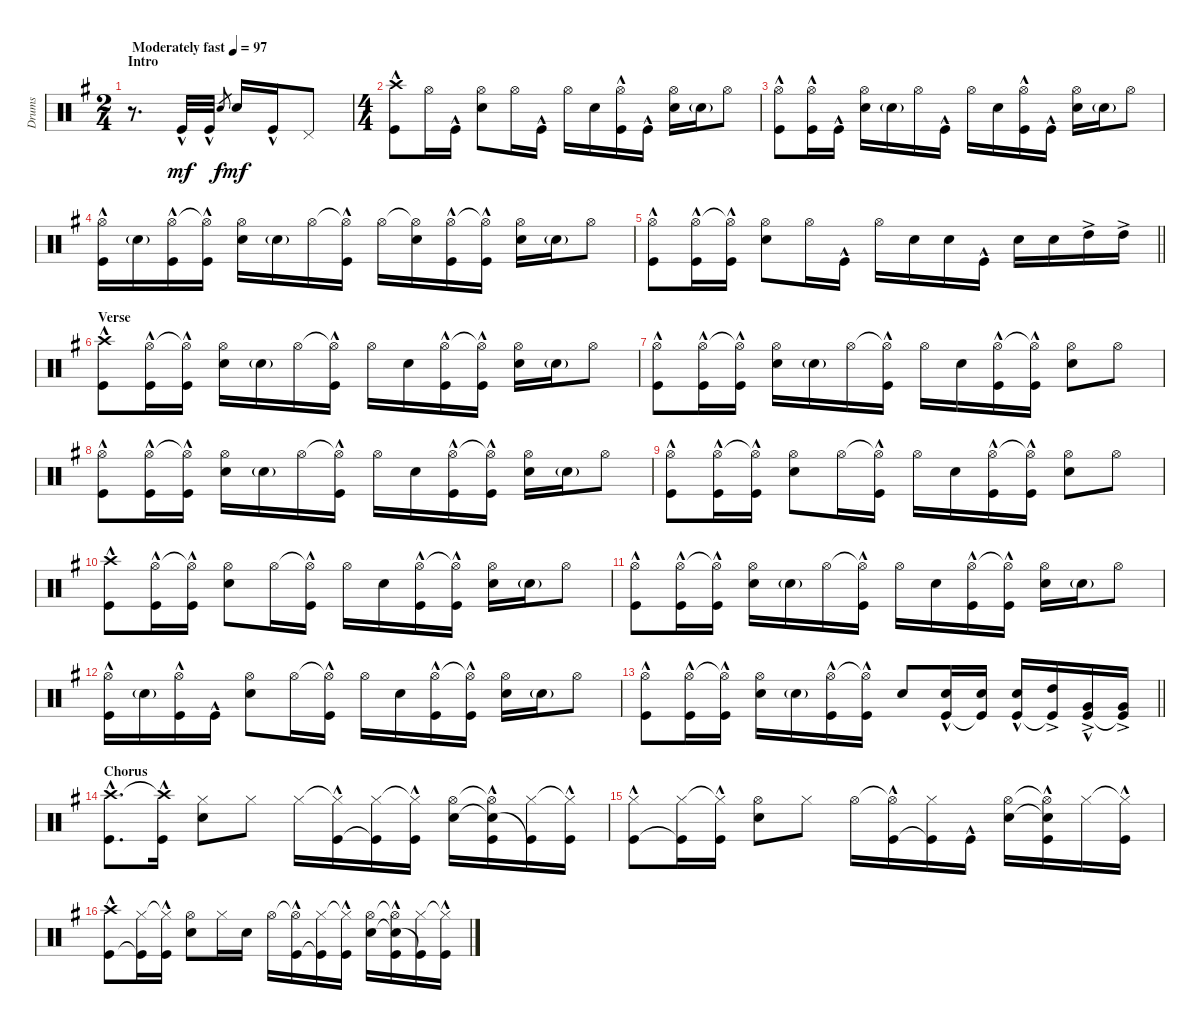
\track ("Drums" "Drums") {instrument percussion}
\staff {score}
\articulation defaults
\ts (2 4)
\section ("" "Intro")
\tempo (97 "Moderately fast")
\clef neutral
\ks eminor
r.8{d dy mf} "Kick (hit)"{hac}.32 "Kick (hit)"{hac}.32 "Snare (hit) 2".8{gr dy f} "Snare (hit) 2".16{dy mf} "Kick (hit)"{hac}.16 "Pedal Hi-Hat (hit)".8 |
\ts (4 4)
("Crash high (hit)" "Kick (hit)"{hac}).8 "Hi-Hat (open)".16 "Kick (hit)"{hac}.16 ("Hi-Hat (open)" "Snare (hit) 2").8 "Hi-Hat (open)".16 "Kick (hit)"{hac}.16 "Hi-Hat (open)".16 "Snare (hit) 2".16 ("Hi-Hat (open)" "Kick (hit)"{hac}).16 "Kick (hit)"{hac}.16 ("Hi-Hat (open)" "Snare (hit) 2").16 "Snare (hit) 2"{g}.16 "Hi-Hat (open)".8 |
("Hi-Hat (open)" "Kick (hit)"{hac}).8 ("Hi-Hat (open)" "Kick (hit)"{hac}).16 "Kick (hit)"{hac}.16 ("Hi-Hat (open)" "Snare (hit) 2").16 "Snare (hit) 2"{g}.16 "Hi-Hat (open)".16 "Kick (hit)"{hac}.16 "Hi-Hat (open)".16 "Snare (hit) 2".16 ("Hi-Hat (open)" "Kick (hit)"{hac}).16 "Kick (hit)"{hac}.16 ("Hi-Hat (open)" "Snare (hit) 2").16 "Snare (hit) 2"{g}.16 "Hi-Hat (open)".8 |
("Hi-Hat (open)" "Kick (hit)"{hac}).16 "Snare (hit) 2"{g}.16 ("Hi-Hat (open)" "Kick (hit)"{hac}).16 ("Hi-Hat (open)"{t} "Kick (hit)"{hac}).16 ("Hi-Hat (open)" "Snare (hit) 2").16 "Snare (hit) 2"{g}.16 "Hi-Hat (open)".16 ("Hi-Hat (open)"{t} "Kick (hit)"{hac}).16 "Hi-Hat (open)".16 ("Hi-Hat (open)"{t} "Snare (hit) 2").16 ("Hi-Hat (open)" "Kick (hit)"{hac}).16 ("Hi-Hat (open)"{t} "Kick (hit)"{hac}).16 ("Hi-Hat (open)" "Snare (hit) 2").16 "Snare (hit) 2"{g}.16 "Hi-Hat (open)".8 |
\barLineRight lightlight
("Hi-Hat (open)" "Kick (hit)"{hac}).8 ("Hi-Hat (open)" "Kick (hit)"{hac}).16 ("Hi-Hat (open)"{t} "Kick (hit)"{hac}).16 ("Hi-Hat (open)" "Snare (hit) 2").8 "Hi-Hat (open)".16 "Kick (hit)"{hac}.16 "Hi-Hat (open)".16 "Snare (hit) 2".16 "Snare (hit) 2".16 "Kick (hit)"{hac}.16 "Snare (hit) 2".16 "Snare (hit) 2".16 "High Tom (hit)"{ac}.16 "High Tom (hit)"{ac}.16 |
\section ("" "Verse")
("Crash high (hit)" "Kick (hit)"{hac}).8 ("Hi-Hat (open)" "Kick (hit)"{hac}).16 ("Hi-Hat (open)"{t} "Kick (hit)"{hac}).16 ("Hi-Hat (open)" "Snare (hit) 2").16 "Snare (hit) 2"{g}.16 "Hi-Hat (open)".16 ("Hi-Hat (open)"{t} "Kick (hit)"{hac}).16 "Hi-Hat (open)".16 "Snare (hit) 2".16 ("Hi-Hat (open)" "Kick (hit)"{hac}).16 ("Hi-Hat (open)"{t} "Kick (hit)"{hac}).16 ("Hi-Hat (open)" "Snare (hit) 2").16 "Snare (hit) 2"{g}.16 "Hi-Hat (open)".8 |
("Hi-Hat (open)" "Kick (hit)"{hac}).8 ("Hi-Hat (open)" "Kick (hit)"{hac}).16 ("Hi-Hat (open)"{t} "Kick (hit)"{hac}).16 ("Hi-Hat (open)" "Snare (hit) 2").16 "Snare (hit) 2"{g}.16 "Hi-Hat (open)".16 ("Hi-Hat (open)"{t} "Kick (hit)"{hac}).16 "Hi-Hat (open)".16 "Snare (hit) 2".16 ("Hi-Hat (open)" "Kick (hit)"{hac}).16 ("Hi-Hat (open)"{t} "Kick (hit)"{hac}).16 ("Hi-Hat (open)" "Snare (hit) 2").8 "Hi-Hat (open)".8 |
("Hi-Hat (open)" "Kick (hit)"{hac}).8 ("Hi-Hat (open)" "Kick (hit)"{hac}).16 ("Hi-Hat (open)"{t} "Kick (hit)"{hac}).16 ("Hi-Hat (open)" "Snare (hit) 2").16 "Snare (hit) 2"{g}.16 "Hi-Hat (open)".16 ("Hi-Hat (open)"{t} "Kick (hit)"{hac}).16 "Hi-Hat (open)".16 "Snare (hit) 2".16 ("Hi-Hat (open)" "Kick (hit)"{hac}).16 ("Hi-Hat (open)"{t} "Kick (hit)"{hac}).16 ("Hi-Hat (open)" "Snare (hit) 2").16 "Snare (hit) 2"{g}.16 "Hi-Hat (open)".8 |
("Hi-Hat (open)" "Kick (hit)"{hac}).8 ("Hi-Hat (open)" "Kick (hit)"{hac}).16 ("Hi-Hat (open)"{t} "Kick (hit)"{hac}).16 ("Hi-Hat (open)" "Snare (hit) 2").8 "Hi-Hat (open)".16 ("Hi-Hat (open)"{t} "Kick (hit)"{hac}).16 "Hi-Hat (open)".16 "Snare (hit) 2".16 ("Hi-Hat (open)" "Kick (hit)"{hac}).16 ("Hi-Hat (open)"{t} "Kick (hit)"{hac}).16 ("Hi-Hat (open)" "Snare (hit) 2").8 "Hi-Hat (open)".8 |
("Crash high (hit)" "Kick (hit)"{hac}).8 ("Hi-Hat (open)" "Kick (hit)"{hac}).16 ("Hi-Hat (open)"{t} "Kick (hit)"{hac}).16 ("Hi-Hat (open)" "Snare (hit) 2").8 "Hi-Hat (open)".16 ("Hi-Hat (open)"{t} "Kick (hit)"{hac}).16 "Hi-Hat (open)".16 "Snare (hit) 2".16 ("Hi-Hat (open)" "Kick (hit)"{hac}).16 ("Hi-Hat (open)"{t} "Kick (hit)"{hac}).16 ("Hi-Hat (open)" "Snare (hit) 2").16 "Snare (hit) 2"{g}.16 "Hi-Hat (open)".8 |
("Hi-Hat (open)" "Kick (hit)"{hac}).8 ("Hi-Hat (open)" "Kick (hit)"{hac}).16 ("Hi-Hat (open)"{t} "Kick (hit)"{hac}).16 ("Hi-Hat (open)" "Snare (hit) 2").16 "Snare (hit) 2"{g}.16 "Hi-Hat (open)".16 ("Hi-Hat (open)"{t} "Kick (hit)"{hac}).16 "Hi-Hat (open)".16 "Snare (hit) 2".16 ("Hi-Hat (open)" "Kick (hit)"{hac}).16 ("Hi-Hat (open)"{t} "Kick (hit)"{hac}).16 ("Hi-Hat (open)" "Snare (hit) 2").16 "Snare (hit) 2"{g}.16 "Hi-Hat (open)".8 |
("Hi-Hat (open)" "Kick (hit)"{hac}).16 "Snare (hit) 2"{g}.16 ("Hi-Hat (open)" "Kick (hit)"{hac}).16 "Kick (hit)"{hac}.16 ("Hi-Hat (open)" "Snare (hit) 2").8 "Hi-Hat (open)".16 ("Hi-Hat (open)"{t} "Kick (hit)"{hac}).16 "Hi-Hat (open)".16 "Snare (hit) 2".16 ("Hi-Hat (open)" "Kick (hit)"{hac}).16 ("Hi-Hat (open)"{t} "Kick (hit)"{hac}).16 ("Hi-Hat (open)" "Snare (hit) 2").16 "Snare (hit) 2"{g}.16 "Hi-Hat (open)".8 |
\barLineRight lightlight
("Hi-Hat (open)" "Kick (hit)"{hac}).8 ("Hi-Hat (open)" "Kick (hit)"{hac}).16 ("Hi-Hat (open)"{t} "Kick (hit)"{hac}).16 ("Hi-Hat (open)" "Snare (hit) 2").16 "Snare (hit) 2"{g}.16 ("Hi-Hat (open)" "Kick (hit)"{hac}).16 ("Hi-Hat (open)"{t} "Kick (hit)"{hac}).16 "Snare (hit) 2".8 ("Snare (hit) 2" "Kick (hit)"{hac}).16 ("Snare (hit) 2" "Kick (hit)"{t}).16 ("Snare (hit) 2" "Kick (hit)"{hac}).16 ("High Tom (hit)"{ac} "Kick (hit)"{t}).16 ("Very Low Tom (hit)"{ac} "Kick (hit)"{hac}).16 ("Very Low Tom (hit)"{ac} "Kick (hit)"{t}).16 |
\section ("" "Chorus")
("Crash high (hit)" "Kick (hit)"{hac}).8{d} ("Crash high (hit)"{t} "Kick (hit)"{hac}).16 ("Hi-Hat (closed)" "Snare (hit) 2").8 "Hi-Hat (closed)".8 "Hi-Hat (closed)".16 ("Hi-Hat (closed)"{t} "Kick (hit)"{hac}).16 ("Hi-Hat (closed)" "Kick (hit)"{t}).16 ("Hi-Hat (closed)"{t} "Kick (hit)"{hac}).16 ("Hi-Hat (open)" "Snare (hit) 2").16 ("Hi-Hat (open)"{t} "Snare (hit) 2"{t} "Kick (hit)"{hac}).16 ("Hi-Hat (closed)" "Kick (hit)"{t}).16 ("Hi-Hat (closed)"{t} "Kick (hit)"{hac}).16 |
("Hi-Hat (closed)" "Kick (hit)"{hac}).8 ("Hi-Hat (closed)" "Kick (hit)"{t}).16 ("Hi-Hat (closed)"{t} "Kick (hit)"{hac}).16 ("Hi-Hat (open)" "Snare (hit) 2").8 "Hi-Hat (closed)".8 "Hi-Hat (open)".16 ("Hi-Hat (open)"{t} "Kick (hit)"{hac}).16 ("Hi-Hat (closed)" "Kick (hit)"{t}).16 "Kick (hit)"{hac}.16 ("Hi-Hat (open)" "Snare (hit) 2").16 ("Hi-Hat (open)"{t} "Snare (hit) 2"{t} "Kick (hit)"{hac}).16 "Hi-Hat (closed)".16 ("Hi-Hat (closed)"{t} "Kick (hit)"{hac}).16 |
("Crash high (hit)" "Kick (hit)"{hac}).8 ("Hi-Hat (closed)" "Kick (hit)"{t}).16 ("Hi-Hat (closed)"{t} "Kick (hit)"{hac}).16 ("Hi-Hat (open)" "Snare (hit) 2").8 "Hi-Hat (closed)".16 "Snare (hit) 2".16 "Hi-Hat (open)".16 ("Hi-Hat (open)"{t} "Kick (hit)"{hac}).16 ("Hi-Hat (closed)" "Kick (hit)"{t}).16 ("Hi-Hat (closed)"{t} "Kick (hit)"{hac}).16 ("Hi-Hat (open)" "Snare (hit) 2").16 ("Hi-Hat (open)"{t} "Snare (hit) 2"{t} "Kick (hit)"{hac}).16 ("Hi-Hat (closed)" "Kick (hit)"{t}).16 ("Hi-Hat (closed)"{t} "Kick (hit)"{hac}).16
